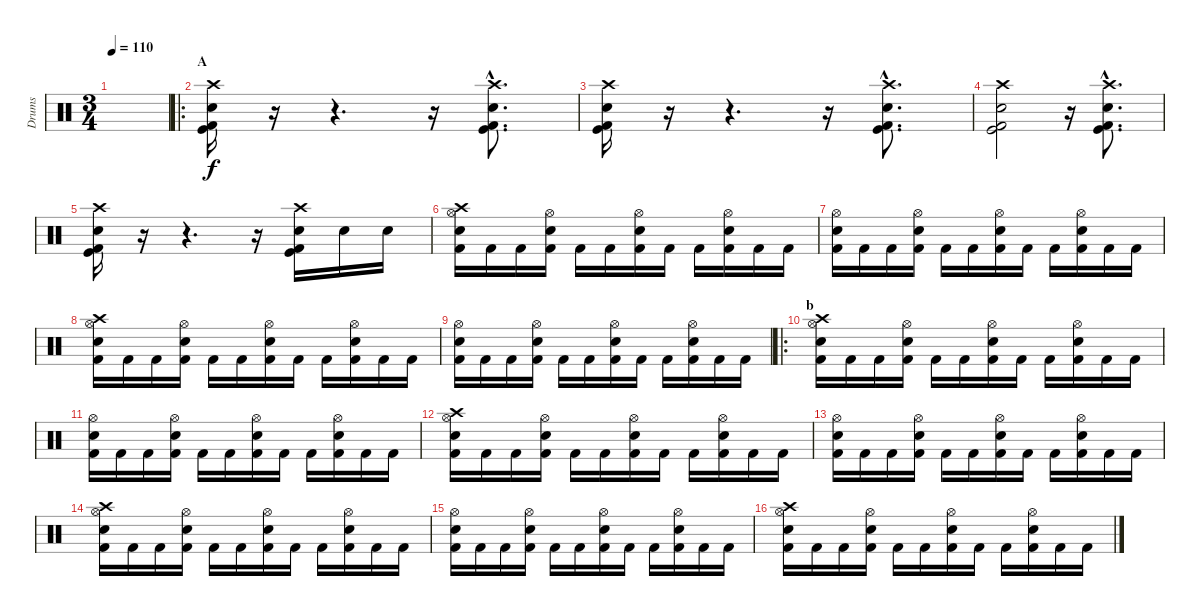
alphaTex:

\track ("Drums" "Drums") {instrument percussion}
\staff {score}
\articulation defaults
\ts (3 4)
\tempo 110
\clef neutral
\ks c
|
\ro
\section ("" "A")
("Crash high (hit)" "Electric Snare (hit)" "Kick (hit)" "Kick (hit) 2").16 r.16{volume 0} r.4{d} r.16{volume 16} ("Crash high (hit)"{hac} "Electric Snare (hit)"{hac} "Kick (hit)"{hac} "Kick (hit) 2"{hac}).8{d} |
("Crash high (hit)" "Electric Snare (hit)" "Kick (hit)" "Kick (hit) 2").16 r.16{volume 0} r.4{d} r.16{volume 16} ("Crash high (hit)"{hac} "Electric Snare (hit)"{hac} "Kick (hit)"{hac} "Kick (hit) 2"{hac}).8{d} |
("Crash high (hit)" "Electric Snare (hit)" "Kick (hit)" "Kick (hit) 2").2 r.16 ("Crash high (hit)"{hac} "Electric Snare (hit)"{hac} "Kick (hit)"{hac} "Kick (hit) 2"{hac}).8{d} |
("Crash high (hit)" "Electric Snare (hit)" "Kick (hit)" "Kick (hit) 2").16 r.16{volume 0} r.4{d} r.16{volume 16} ("Crash high (hit)" "Electric Snare (hit)" "Kick (hit)" "Kick (hit) 2").16 "Electric Snare (hit)".16 "Electric Snare (hit)".16 |
("Kick (hit) 2" "Hi-Hat (open)" "Electric Snare (hit)" "Crash high (hit)").16 "Kick (hit) 2".16 "Kick (hit) 2".16 ("Kick (hit) 2" "Electric Snare (hit)" "Hi-Hat (open)").16 "Kick (hit) 2".16 "Kick (hit) 2".16 ("Kick (hit) 2" "Hi-Hat (open)" "Electric Snare (hit)").16 "Kick (hit) 2".16 "Kick (hit) 2".16 ("Kick (hit) 2" "Electric Snare (hit)" "Hi-Hat (open)").16 "Kick (hit) 2".16 "Kick (hit) 2".16 |
("Kick (hit) 2" "Hi-Hat (open)" "Electric Snare (hit)").16 "Kick (hit) 2".16 "Kick (hit) 2".16 ("Kick (hit) 2" "Electric Snare (hit)" "Hi-Hat (open)").16 "Kick (hit) 2".16 "Kick (hit) 2".16 ("Kick (hit) 2" "Hi-Hat (open)" "Electric Snare (hit)").16 "Kick (hit) 2".16 "Kick (hit) 2".16 ("Kick (hit) 2" "Electric Snare (hit)" "Hi-Hat (open)").16 "Kick (hit) 2".16 "Kick (hit) 2".16 |
("Kick (hit) 2" "Hi-Hat (open)" "Electric Snare (hit)" "Crash high (hit)").16 "Kick (hit) 2".16 "Kick (hit) 2".16 ("Kick (hit) 2" "Electric Snare (hit)" "Hi-Hat (open)").16 "Kick (hit) 2".16 "Kick (hit) 2".16 ("Kick (hit) 2" "Hi-Hat (open)" "Electric Snare (hit)").16 "Kick (hit) 2".16 "Kick (hit) 2".16 ("Kick (hit) 2" "Electric Snare (hit)" "Hi-Hat (open)").16 "Kick (hit) 2".16 "Kick (hit) 2".16 |
("Kick (hit) 2" "Hi-Hat (open)" "Electric Snare (hit)").16 "Kick (hit) 2".16 "Kick (hit) 2".16 ("Kick (hit) 2" "Electric Snare (hit)" "Hi-Hat (open)").16 "Kick (hit) 2".16 "Kick (hit) 2".16 ("Kick (hit) 2" "Hi-Hat (open)" "Electric Snare (hit)").16 "Kick (hit) 2".16 "Kick (hit) 2".16 ("Kick (hit) 2" "Electric Snare (hit)" "Hi-Hat (open)").16 "Kick (hit) 2".16 "Kick (hit) 2".16 |
\ro
\section ("" "b")
("Kick (hit) 2" "Hi-Hat (open)" "Electric Snare (hit)" "Crash high (hit)").16 "Kick (hit) 2".16 "Kick (hit) 2".16 ("Kick (hit) 2" "Electric Snare (hit)" "Hi-Hat (open)").16 "Kick (hit) 2".16 "Kick (hit) 2".16 ("Kick (hit) 2" "Hi-Hat (open)" "Electric Snare (hit)").16 "Kick (hit) 2".16 "Kick (hit) 2".16 ("Kick (hit) 2" "Electric Snare (hit)" "Hi-Hat (open)").16 "Kick (hit) 2".16 "Kick (hit) 2".16 |
("Kick (hit) 2" "Hi-Hat (open)" "Electric Snare (hit)").16 "Kick (hit) 2".16 "Kick (hit) 2".16 ("Kick (hit) 2" "Electric Snare (hit)" "Hi-Hat (open)").16 "Kick (hit) 2".16 "Kick (hit) 2".16 ("Kick (hit) 2" "Hi-Hat (open)" "Electric Snare (hit)").16 "Kick (hit) 2".16 "Kick (hit) 2".16 ("Kick (hit) 2" "Electric Snare (hit)" "Hi-Hat (open)").16 "Kick (hit) 2".16 "Kick (hit) 2".16 |
("Kick (hit) 2" "Hi-Hat (open)" "Electric Snare (hit)" "Crash high (hit)").16 "Kick (hit) 2".16 "Kick (hit) 2".16 ("Kick (hit) 2" "Electric Snare (hit)" "Hi-Hat (open)").16 "Kick (hit) 2".16 "Kick (hit) 2".16 ("Kick (hit) 2" "Hi-Hat (open)" "Electric Snare (hit)").16 "Kick (hit) 2".16 "Kick (hit) 2".16 ("Kick (hit) 2" "Electric Snare (hit)" "Hi-Hat (open)").16 "Kick (hit) 2".16 "Kick (hit) 2".16 |
("Kick (hit) 2" "Hi-Hat (open)" "Electric Snare (hit)").16 "Kick (hit) 2".16 "Kick (hit) 2".16 ("Kick (hit) 2" "Electric Snare (hit)" "Hi-Hat (open)").16 "Kick (hit) 2".16 "Kick (hit) 2".16 ("Kick (hit) 2" "Hi-Hat (open)" "Electric Snare (hit)").16 "Kick (hit) 2".16 "Kick (hit) 2".16 ("Kick (hit) 2" "Electric Snare (hit)" "Hi-Hat (open)").16 "Kick (hit) 2".16 "Kick (hit) 2".16 |
("Kick (hit) 2" "Hi-Hat (open)" "Electric Snare (hit)" "Crash high (hit)").16 "Kick (hit) 2".16 "Kick (hit) 2".16 ("Kick (hit) 2" "Electric Snare (hit)" "Hi-Hat (open)").16 "Kick (hit) 2".16 "Kick (hit) 2".16 ("Kick (hit) 2" "Hi-Hat (open)" "Electric Snare (hit)").16 "Kick (hit) 2".16 "Kick (hit) 2".16 ("Kick (hit) 2" "Electric Snare (hit)" "Hi-Hat (open)").16 "Kick (hit) 2".16 "Kick (hit) 2".16 |
("Kick (hit) 2" "Hi-Hat (open)" "Electric Snare (hit)").16 "Kick (hit) 2".16 "Kick (hit) 2".16 ("Kick (hit) 2" "Electric Snare (hit)" "Hi-Hat (open)").16 "Kick (hit) 2".16 "Kick (hit) 2".16 ("Kick (hit) 2" "Hi-Hat (open)" "Electric Snare (hit)").16 "Kick (hit) 2".16 "Kick (hit) 2".16 ("Kick (hit) 2" "Electric Snare (hit)" "Hi-Hat (open)").16 "Kick (hit) 2".16 "Kick (hit) 2".16 |
("Kick (hit) 2" "Hi-Hat (open)" "Electric Snare (hit)" "Crash high (hit)").16 "Kick (hit) 2".16 "Kick (hit) 2".16 ("Kick (hit) 2" "Electric Snare (hit)" "Hi-Hat (open)").16 "Kick (hit) 2".16 "Kick (hit) 2".16 ("Kick (hit) 2" "Hi-Hat (open)" "Electric Snare (hit)").16 "Kick (hit) 2".16 "Kick (hit) 2".16 ("Kick (hit) 2" "Electric Snare (hit)" "Hi-Hat (open)").16 "Kick (hit) 2".16 "Kick (hit) 2".16
